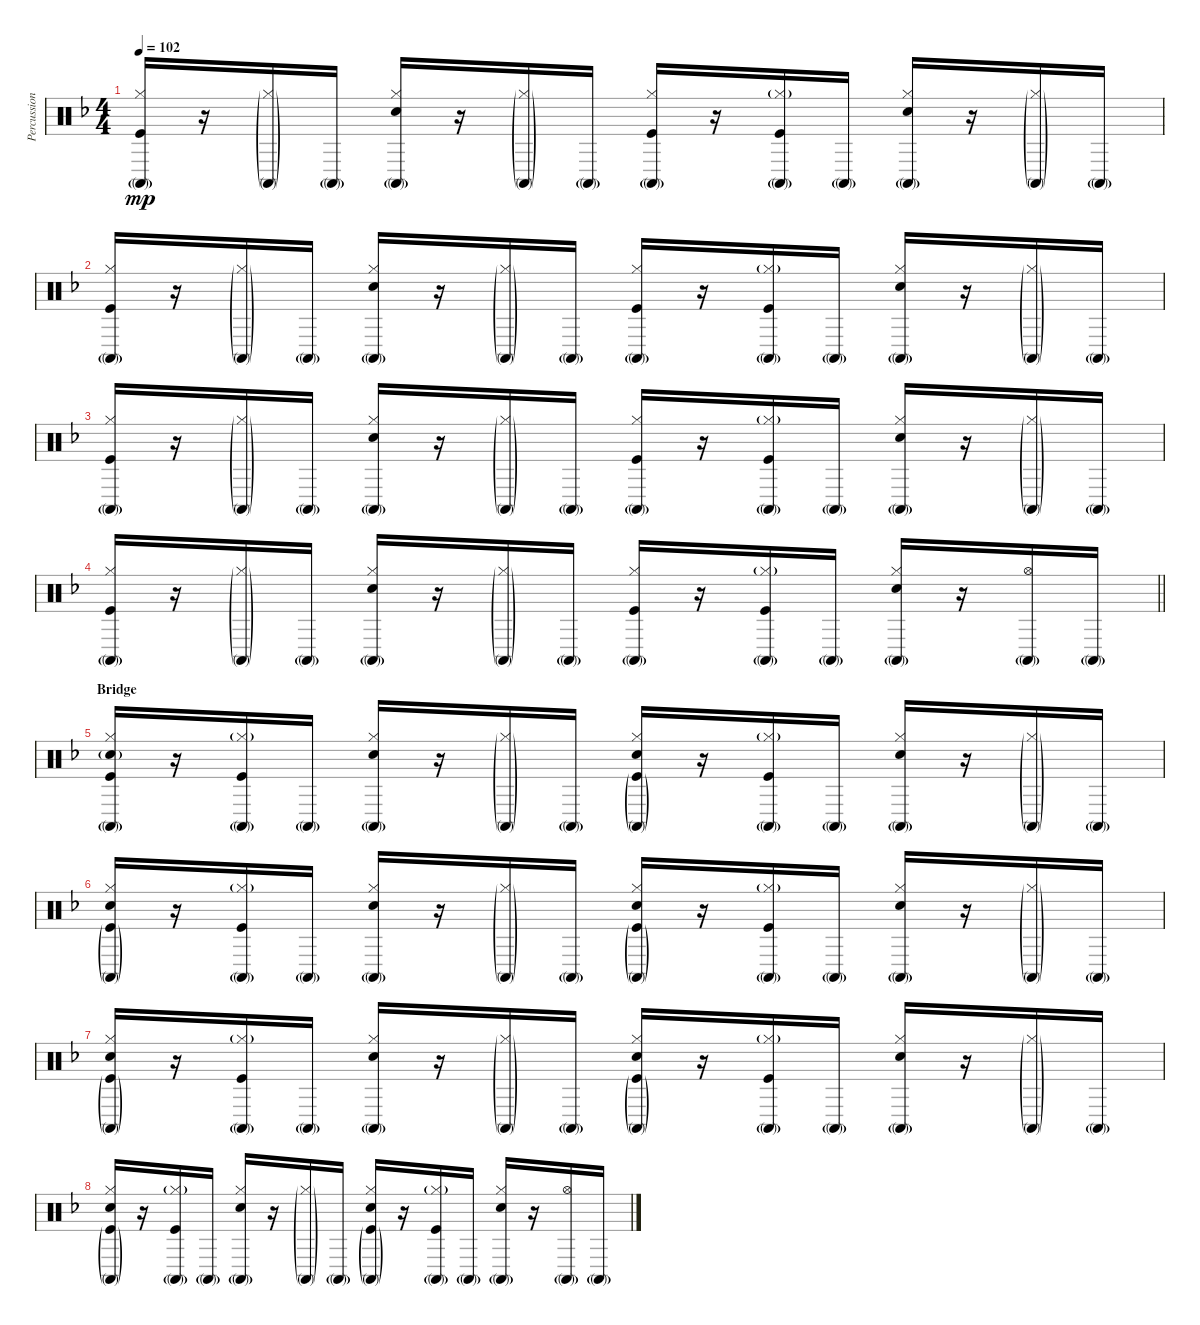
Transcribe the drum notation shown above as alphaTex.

\track ("Percussion" "Percussion") {instrument percussion bank 255}
\staff {score}
\articulation defaults
\ts (4 4)
\tempo 102
\clef neutral
\ks f
("Conga high (mute)"{g} "Hi-Hat (closed)" "Kick (hit)").16{dy mp} r.16 ("Conga high (mute)"{g} "Hi-Hat (closed)"{g}).16 "Conga high (mute)"{g}.16 ("Conga high (mute)"{g} "Hi-Hat (closed)" "Snare (hit) 2").16 r.16 ("Conga high (mute)"{g} "Hi-Hat (closed)"{g}).16 "Conga high (mute)"{g}.16 ("Conga high (mute)"{g} "Hi-Hat (closed)" "Kick (hit)").16 r.16 ("Conga high (mute)"{g} "Hi-Hat (closed)"{g} "Kick (hit)").16 "Conga high (mute)"{g}.16 ("Conga high (mute)"{g} "Hi-Hat (closed)" "Snare (hit) 2").16 r.16 ("Conga high (mute)"{g} "Hi-Hat (closed)"{g}).16 "Conga high (mute)"{g}.16 |
("Conga high (mute)"{g} "Hi-Hat (closed)" "Kick (hit)").16 r.16 ("Conga high (mute)"{g} "Hi-Hat (closed)"{g}).16 "Conga high (mute)"{g}.16 ("Conga high (mute)"{g} "Hi-Hat (closed)" "Snare (hit) 2").16 r.16 ("Conga high (mute)"{g} "Hi-Hat (closed)"{g}).16 "Conga high (mute)"{g}.16 ("Conga high (mute)"{g} "Hi-Hat (closed)" "Kick (hit)").16 r.16 ("Conga high (mute)"{g} "Hi-Hat (closed)"{g} "Kick (hit)").16 "Conga high (mute)"{g}.16 ("Conga high (mute)"{g} "Hi-Hat (closed)" "Snare (hit) 2").16 r.16 ("Conga high (mute)"{g} "Hi-Hat (closed)"{g}).16 "Conga high (mute)"{g}.16 |
("Conga high (mute)"{g} "Hi-Hat (closed)" "Kick (hit)").16 r.16 ("Conga high (mute)"{g} "Hi-Hat (closed)"{g}).16 "Conga high (mute)"{g}.16 ("Conga high (mute)"{g} "Hi-Hat (closed)" "Snare (hit) 2").16 r.16 ("Conga high (mute)"{g} "Hi-Hat (closed)"{g}).16 "Conga high (mute)"{g}.16 ("Conga high (mute)"{g} "Hi-Hat (closed)" "Kick (hit)").16 r.16 ("Conga high (mute)"{g} "Hi-Hat (closed)"{g} "Kick (hit)").16 "Conga high (mute)"{g}.16 ("Conga high (mute)"{g} "Hi-Hat (closed)" "Snare (hit) 2").16 r.16 ("Conga high (mute)"{g} "Hi-Hat (closed)"{g}).16 "Conga high (mute)"{g}.16 |
\barLineRight lightlight
("Conga high (mute)"{g} "Hi-Hat (closed)" "Kick (hit)").16 r.16 ("Conga high (mute)"{g} "Hi-Hat (closed)"{g}).16 "Conga high (mute)"{g}.16 ("Conga high (mute)"{g} "Hi-Hat (closed)" "Snare (hit) 2").16 r.16 ("Conga high (mute)"{g} "Hi-Hat (closed)"{g}).16 "Conga high (mute)"{g}.16 ("Conga high (mute)"{g} "Hi-Hat (closed)" "Kick (hit)").16 r.16 ("Conga high (mute)"{g} "Hi-Hat (closed)"{g} "Kick (hit)").16 "Conga high (mute)"{g}.16 ("Conga high (mute)"{g} "Hi-Hat (closed)" "Snare (hit) 2").16 r.16 ("Conga high (mute)"{g} "Hi-Hat (open)").16 "Conga high (mute)"{g}.16 |
\section ("" "Bridge")
("Conga high (mute)"{g} "Hi-Hat (closed)" "Snare (hit) 2"{g} "Kick (hit)").16 r.16 ("Conga high (mute)"{g} "Hi-Hat (closed)"{g} "Kick (hit)").16 "Conga high (mute)"{g}.16 ("Conga high (mute)"{g} "Hi-Hat (closed)" "Snare (hit) 2").16 r.16 ("Conga high (mute)"{g} "Hi-Hat (closed)"{g}).16 "Conga high (mute)"{g}.16 ("Conga high (mute)"{g} "Hi-Hat (closed)" "Snare (hit) 2" "Kick (hit)"{g}).16 r.16 ("Conga high (mute)"{g} "Hi-Hat (closed)"{g} "Kick (hit)").16 "Conga high (mute)"{g}.16 ("Conga high (mute)"{g} "Hi-Hat (closed)" "Snare (hit) 2").16 r.16 ("Conga high (mute)"{g} "Hi-Hat (closed)"{g}).16 "Conga high (mute)"{g}.16 |
("Conga high (mute)"{g} "Hi-Hat (closed)" "Snare (hit) 2" "Kick (hit)"{g}).16 r.16 ("Conga high (mute)"{g} "Hi-Hat (closed)"{g} "Kick (hit)").16 "Conga high (mute)"{g}.16 ("Conga high (mute)"{g} "Hi-Hat (closed)" "Snare (hit) 2").16 r.16 ("Conga high (mute)"{g} "Hi-Hat (closed)"{g}).16 "Conga high (mute)"{g}.16 ("Conga high (mute)"{g} "Hi-Hat (closed)" "Snare (hit) 2" "Kick (hit)"{g}).16 r.16 ("Conga high (mute)"{g} "Hi-Hat (closed)"{g} "Kick (hit)").16 "Conga high (mute)"{g}.16 ("Conga high (mute)"{g} "Hi-Hat (closed)" "Snare (hit) 2").16 r.16 ("Conga high (mute)"{g} "Hi-Hat (closed)"{g}).16 "Conga high (mute)"{g}.16 |
("Conga high (mute)"{g} "Hi-Hat (closed)" "Snare (hit) 2" "Kick (hit)"{g}).16 r.16 ("Conga high (mute)"{g} "Hi-Hat (closed)"{g} "Kick (hit)").16 "Conga high (mute)"{g}.16 ("Conga high (mute)"{g} "Hi-Hat (closed)" "Snare (hit) 2").16 r.16 ("Conga high (mute)"{g} "Hi-Hat (closed)"{g}).16 "Conga high (mute)"{g}.16 ("Conga high (mute)"{g} "Hi-Hat (closed)" "Snare (hit) 2" "Kick (hit)"{g}).16 r.16 ("Conga high (mute)"{g} "Hi-Hat (closed)"{g} "Kick (hit)").16 "Conga high (mute)"{g}.16 ("Conga high (mute)"{g} "Hi-Hat (closed)" "Snare (hit) 2").16 r.16 ("Conga high (mute)"{g} "Hi-Hat (closed)"{g}).16 "Conga high (mute)"{g}.16 |
("Conga high (mute)"{g} "Hi-Hat (closed)" "Snare (hit) 2" "Kick (hit)"{g}).16 r.16 ("Conga high (mute)"{g} "Hi-Hat (closed)"{g} "Kick (hit)").16 "Conga high (mute)"{g}.16 ("Conga high (mute)"{g} "Hi-Hat (closed)" "Snare (hit) 2").16 r.16 ("Conga high (mute)"{g} "Hi-Hat (closed)"{g}).16 "Conga high (mute)"{g}.16 ("Conga high (mute)"{g} "Hi-Hat (closed)" "Snare (hit) 2" "Kick (hit)"{g}).16 r.16 ("Conga high (mute)"{g} "Hi-Hat (closed)"{g} "Kick (hit)").16 "Conga high (mute)"{g}.16 ("Conga high (mute)"{g} "Hi-Hat (closed)" "Snare (hit) 2").16 r.16 ("Conga high (mute)"{g} "Hi-Hat (open)").16 "Conga high (mute)"{g}.16
